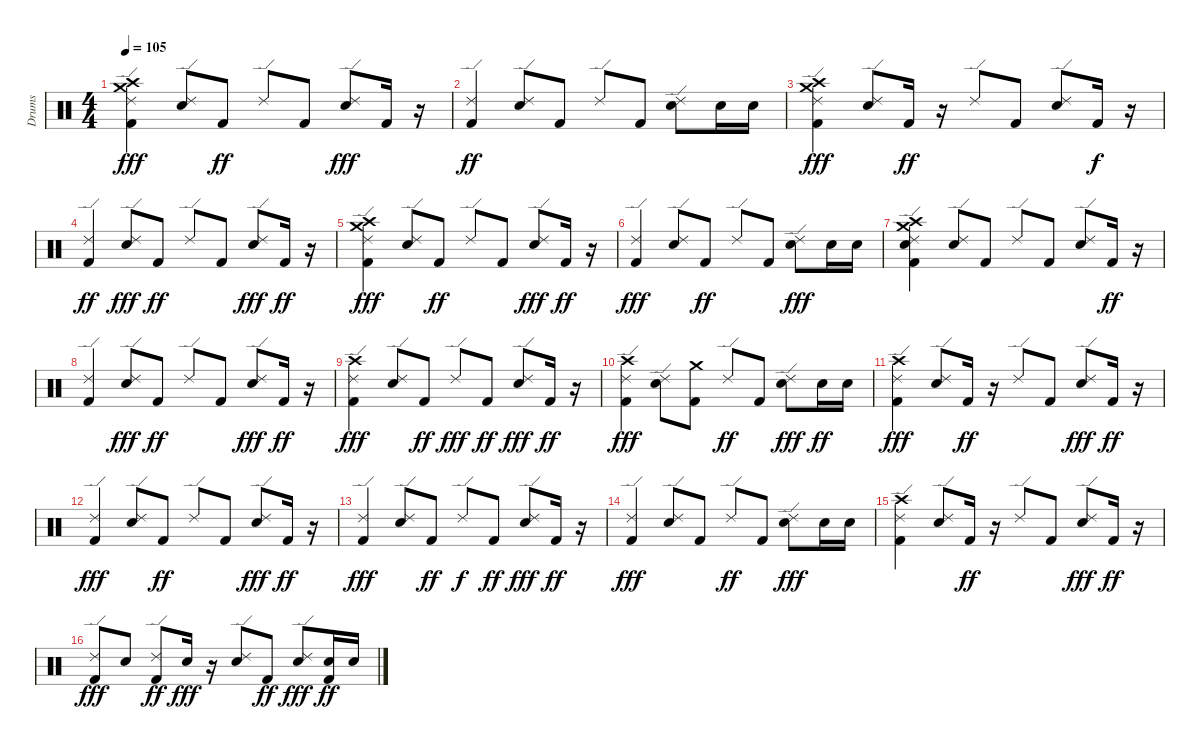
\track ("Drums" "Drums") {instrument percussion}
\staff {score}
\articulation defaults
\ts (4 4)
\tempo 105
\clef neutral
\ks c
("Crash medium (hit)" "Crash high (hit)" "Ride (edge) 2" "Kick (hit) 2").4{dy fff} ("Ride (edge) 2" "Snare (hit) 2").8 "Kick (hit) 2".8{dy ff} "Ride (edge) 2".8 "Kick (hit) 2".8 ("Ride (edge) 2" "Snare (hit) 2").8{dy fff} "Kick (hit) 2".16 r.16 |
("Ride (edge) 2" "Kick (hit) 2").4{dy ff} ("Ride (edge) 2" "Snare (hit) 2").8 "Kick (hit) 2".8 "Ride (edge) 2".8 "Kick (hit) 2".8 ("Ride (edge) 2" "Snare (hit) 2").8 "Snare (hit) 2".16 "Snare (hit) 2".16 |
("Crash medium (hit)" "Crash high (hit)" "Ride (edge) 2" "Kick (hit) 2").4{dy fff} ("Ride (edge) 2" "Snare (hit) 2").8 "Kick (hit) 2".16{dy ff} r.16 "Ride (edge) 2".8 "Kick (hit) 2".8 ("Ride (edge) 2" "Snare (hit) 2").8 "Kick (hit) 2".16{dy f} r.16 |
("Ride (edge) 2" "Kick (hit) 2").4{dy ff} ("Ride (edge) 2" "Snare (hit) 2").8{dy fff} "Kick (hit) 2".8{dy ff} "Ride (edge) 2".8 "Kick (hit) 2".8 ("Ride (edge) 2" "Snare (hit) 2").8{dy fff} "Kick (hit) 2".16{dy ff} r.16 |
("Crash high (hit)" "Crash medium (hit)" "Ride (edge) 2" "Kick (hit) 2").4{dy fff} ("Ride (edge) 2" "Snare (hit) 2").8 "Kick (hit) 2".8{dy ff} "Ride (edge) 2".8 "Kick (hit) 2".8 ("Ride (edge) 2" "Snare (hit) 2").8{dy fff} "Kick (hit) 2".16{dy ff} r.16 |
("Ride (edge) 2" "Kick (hit) 2").4{dy fff} ("Ride (edge) 2" "Snare (hit) 2").8 "Kick (hit) 2".8{dy ff} "Ride (edge) 2".8 "Kick (hit) 2".8 ("Ride (edge) 2" "Snare (hit) 2").8{dy fff} "Snare (hit) 2".16 "Snare (hit) 2".16 |
("Crash medium (hit)" "Crash high (hit)" "Ride (edge) 2" "Kick (hit) 2" "Snare (hit) 2").4 ("Ride (edge) 2" "Snare (hit) 2").8 "Kick (hit) 2".8 "Ride (edge) 2".8 "Kick (hit) 2".8 ("Ride (edge) 2" "Snare (hit) 2").8 "Kick (hit) 2".16{dy ff} r.16 |
("Ride (edge) 2" "Kick (hit) 2").4 ("Ride (edge) 2" "Snare (hit) 2").8{dy fff} "Kick (hit) 2".8{dy ff} "Ride (edge) 2".8 "Kick (hit) 2".8 ("Ride (edge) 2" "Snare (hit) 2").8{dy fff} "Kick (hit) 2".16{dy ff} r.16 |
("Crash high (hit)" "Ride (edge) 2" "Kick (hit) 2").4{dy fff} ("Ride (edge) 2" "Snare (hit) 2").8 "Kick (hit) 2".8{dy ff} "Ride (edge) 2".8{dy fff} "Kick (hit) 2".8{dy ff} ("Ride (edge) 2" "Snare (hit) 2").8{dy fff} "Kick (hit) 2".16{dy ff} r.16 |
("Crash high (hit)" "Ride (edge) 2" "Kick (hit) 2").4{dy fff} ("Ride (edge) 2" "Snare (hit) 2").8 ("Kick (hit) 2" "Crash medium (hit)").8 "Ride (edge) 2".8{dy ff} "Kick (hit) 2".8 ("Ride (edge) 2" "Snare (hit) 2").8{dy fff} "Snare (hit) 2".16{dy ff} "Snare (hit) 2".16 |
("Crash high (hit)" "Ride (edge) 2" "Kick (hit) 2").4{dy fff} ("Ride (edge) 2" "Snare (hit) 2").8 "Kick (hit) 2".16{dy ff} r.16 "Ride (edge) 2".8 "Kick (hit) 2".8 ("Ride (edge) 2" "Snare (hit) 2").8{dy fff} "Kick (hit) 2".16{dy ff} r.16 |
("Ride (edge) 2" "Kick (hit) 2").4{dy fff} ("Ride (edge) 2" "Snare (hit) 2").8 "Kick (hit) 2".8{dy ff} "Ride (edge) 2".8 "Kick (hit) 2".8 ("Ride (edge) 2" "Snare (hit) 2").8{dy fff} "Kick (hit) 2".16{dy ff} r.16 |
("Ride (edge) 2" "Kick (hit) 2").4{dy fff} ("Ride (edge) 2" "Snare (hit) 2").8 "Kick (hit) 2".8{dy ff} "Ride (edge) 2".8{dy f} "Kick (hit) 2".8{dy ff} ("Ride (edge) 2" "Snare (hit) 2").8{dy fff} "Kick (hit) 2".16{dy ff} r.16 |
("Ride (edge) 2" "Kick (hit) 2").4{dy fff} ("Ride (edge) 2" "Snare (hit) 2").8 "Kick (hit) 2".8 "Ride (edge) 2".8{dy ff} "Kick (hit) 2".8 ("Ride (edge) 2" "Snare (hit) 2").8{dy fff} "Snare (hit) 2".16 "Snare (hit) 2".16 |
("Crash high (hit)" "Ride (edge) 2" "Kick (hit) 2").4 ("Ride (edge) 2" "Snare (hit) 2").8 "Kick (hit) 2".16{dy ff} r.16 "Ride (edge) 2".8 "Kick (hit) 2".8 ("Ride (edge) 2" "Snare (hit) 2").8{dy fff} "Kick (hit) 2".16{dy ff} r.16 |
("Ride (edge) 2" "Kick (hit) 2").8{dy fff} "Snare (hit) 2".8 ("Ride (edge) 2" "Kick (hit) 2").8{dy ff} "Snare (hit) 2".16{dy fff} r.16 ("Ride (edge) 2" "Snare (hit) 2").8 "Kick (hit) 2".8{dy ff} ("Ride (edge) 2" "Snare (hit) 2").8{dy fff} ("Kick (hit) 2" "Snare (hit) 2").16{dy ff} "Snare (hit) 2".16
